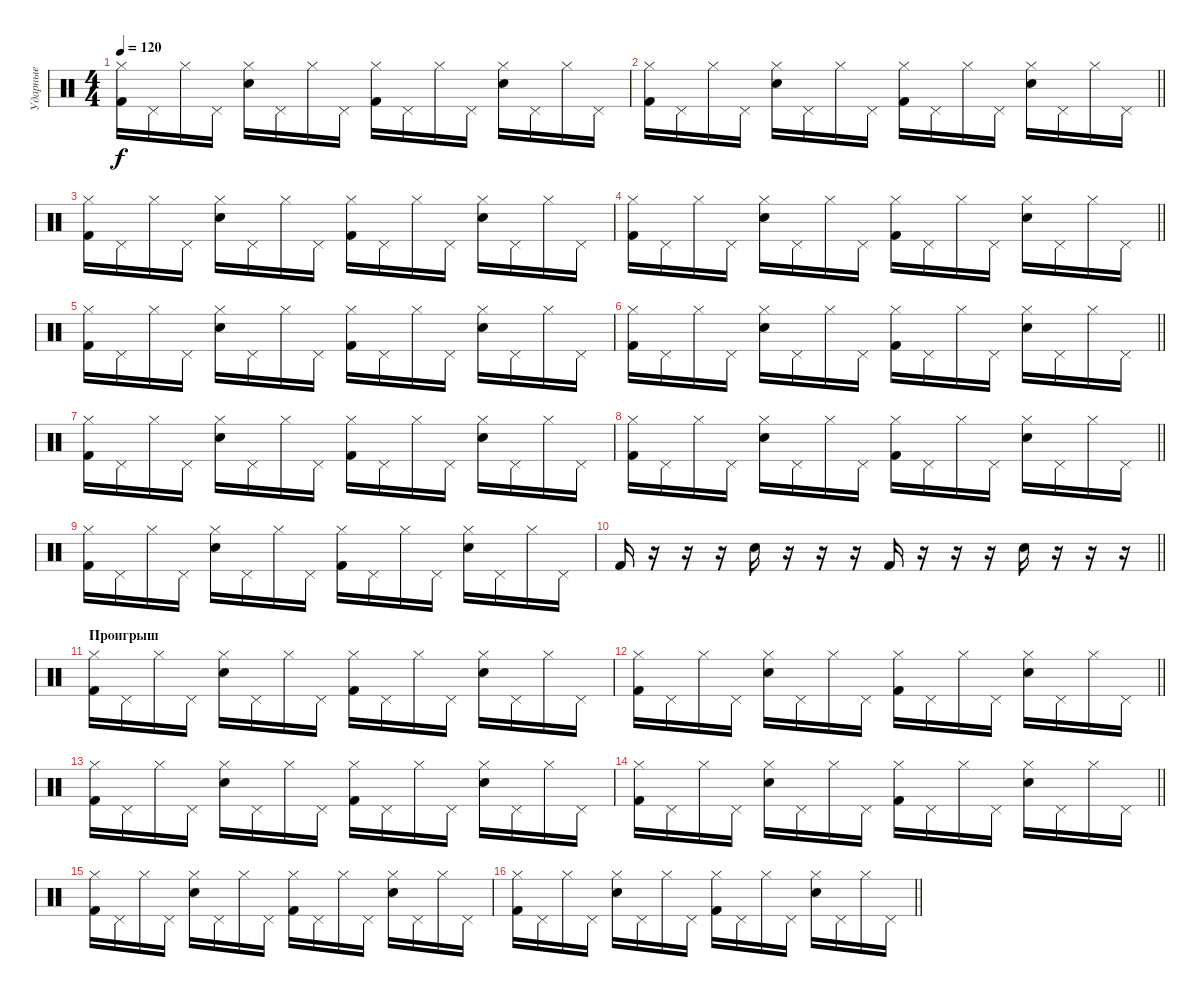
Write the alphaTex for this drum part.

\track ("Ударные" "Ударные") {instrument percussion}
\staff {score}
\articulation defaults
\ts (4 4)
\tempo 120
\clef neutral
\ks c
("Hi-Hat (closed)" "Kick (hit) 2").16{dy f} "Pedal Hi-Hat (hit)".16 "Hi-Hat (closed)".16 "Pedal Hi-Hat (hit)".16 ("Hi-Hat (closed)" "Snare (hit) 2").16 "Pedal Hi-Hat (hit)".16 "Hi-Hat (closed)".16 "Pedal Hi-Hat (hit)".16 ("Hi-Hat (closed)" "Kick (hit) 2").16 "Pedal Hi-Hat (hit)".16 "Hi-Hat (closed)".16 "Pedal Hi-Hat (hit)".16 ("Hi-Hat (closed)" "Snare (hit) 2").16 "Pedal Hi-Hat (hit)".16 "Hi-Hat (closed)".16 "Pedal Hi-Hat (hit)".16 |
\barLineRight lightlight
("Hi-Hat (closed)" "Kick (hit) 2").16 "Pedal Hi-Hat (hit)".16 "Hi-Hat (closed)".16 "Pedal Hi-Hat (hit)".16 ("Hi-Hat (closed)" "Snare (hit) 2").16 "Pedal Hi-Hat (hit)".16 "Hi-Hat (closed)".16 "Pedal Hi-Hat (hit)".16 ("Hi-Hat (closed)" "Kick (hit) 2").16 "Pedal Hi-Hat (hit)".16 "Hi-Hat (closed)".16 "Pedal Hi-Hat (hit)".16 ("Hi-Hat (closed)" "Snare (hit) 2").16 "Pedal Hi-Hat (hit)".16 "Hi-Hat (closed)".16 "Pedal Hi-Hat (hit)".16 |
("Hi-Hat (closed)" "Kick (hit) 2").16 "Pedal Hi-Hat (hit)".16 "Hi-Hat (closed)".16 "Pedal Hi-Hat (hit)".16 ("Hi-Hat (closed)" "Snare (hit) 2").16 "Pedal Hi-Hat (hit)".16 "Hi-Hat (closed)".16 "Pedal Hi-Hat (hit)".16 ("Hi-Hat (closed)" "Kick (hit) 2").16 "Pedal Hi-Hat (hit)".16 "Hi-Hat (closed)".16 "Pedal Hi-Hat (hit)".16 ("Hi-Hat (closed)" "Snare (hit) 2").16 "Pedal Hi-Hat (hit)".16 "Hi-Hat (closed)".16 "Pedal Hi-Hat (hit)".16 |
\barLineRight lightlight
("Hi-Hat (closed)" "Kick (hit) 2").16 "Pedal Hi-Hat (hit)".16 "Hi-Hat (closed)".16 "Pedal Hi-Hat (hit)".16 ("Hi-Hat (closed)" "Snare (hit) 2").16 "Pedal Hi-Hat (hit)".16 "Hi-Hat (closed)".16 "Pedal Hi-Hat (hit)".16 ("Hi-Hat (closed)" "Kick (hit) 2").16 "Pedal Hi-Hat (hit)".16 "Hi-Hat (closed)".16 "Pedal Hi-Hat (hit)".16 ("Hi-Hat (closed)" "Snare (hit) 2").16 "Pedal Hi-Hat (hit)".16 "Hi-Hat (closed)".16 "Pedal Hi-Hat (hit)".16 |
("Hi-Hat (closed)" "Kick (hit) 2").16 "Pedal Hi-Hat (hit)".16 "Hi-Hat (closed)".16 "Pedal Hi-Hat (hit)".16 ("Hi-Hat (closed)" "Snare (hit) 2").16 "Pedal Hi-Hat (hit)".16 "Hi-Hat (closed)".16 "Pedal Hi-Hat (hit)".16 ("Hi-Hat (closed)" "Kick (hit) 2").16 "Pedal Hi-Hat (hit)".16 "Hi-Hat (closed)".16 "Pedal Hi-Hat (hit)".16 ("Hi-Hat (closed)" "Snare (hit) 2").16 "Pedal Hi-Hat (hit)".16 "Hi-Hat (closed)".16 "Pedal Hi-Hat (hit)".16 |
\barLineRight lightlight
("Hi-Hat (closed)" "Kick (hit) 2").16 "Pedal Hi-Hat (hit)".16 "Hi-Hat (closed)".16 "Pedal Hi-Hat (hit)".16 ("Hi-Hat (closed)" "Snare (hit) 2").16 "Pedal Hi-Hat (hit)".16 "Hi-Hat (closed)".16 "Pedal Hi-Hat (hit)".16 ("Hi-Hat (closed)" "Kick (hit) 2").16 "Pedal Hi-Hat (hit)".16 "Hi-Hat (closed)".16 "Pedal Hi-Hat (hit)".16 ("Hi-Hat (closed)" "Snare (hit) 2").16 "Pedal Hi-Hat (hit)".16 "Hi-Hat (closed)".16 "Pedal Hi-Hat (hit)".16 |
("Hi-Hat (closed)" "Kick (hit) 2").16 "Pedal Hi-Hat (hit)".16 "Hi-Hat (closed)".16 "Pedal Hi-Hat (hit)".16 ("Hi-Hat (closed)" "Snare (hit) 2").16 "Pedal Hi-Hat (hit)".16 "Hi-Hat (closed)".16 "Pedal Hi-Hat (hit)".16 ("Hi-Hat (closed)" "Kick (hit) 2").16 "Pedal Hi-Hat (hit)".16 "Hi-Hat (closed)".16 "Pedal Hi-Hat (hit)".16 ("Hi-Hat (closed)" "Snare (hit) 2").16 "Pedal Hi-Hat (hit)".16 "Hi-Hat (closed)".16 "Pedal Hi-Hat (hit)".16 |
\barLineRight lightlight
("Hi-Hat (closed)" "Kick (hit) 2").16 "Pedal Hi-Hat (hit)".16 "Hi-Hat (closed)".16 "Pedal Hi-Hat (hit)".16 ("Hi-Hat (closed)" "Snare (hit) 2").16 "Pedal Hi-Hat (hit)".16 "Hi-Hat (closed)".16 "Pedal Hi-Hat (hit)".16 ("Hi-Hat (closed)" "Kick (hit) 2").16 "Pedal Hi-Hat (hit)".16 "Hi-Hat (closed)".16 "Pedal Hi-Hat (hit)".16 ("Hi-Hat (closed)" "Snare (hit) 2").16 "Pedal Hi-Hat (hit)".16 "Hi-Hat (closed)".16 "Pedal Hi-Hat (hit)".16 |
("Hi-Hat (closed)" "Kick (hit) 2").16 "Pedal Hi-Hat (hit)".16 "Hi-Hat (closed)".16 "Pedal Hi-Hat (hit)".16 ("Hi-Hat (closed)" "Snare (hit) 2").16 "Pedal Hi-Hat (hit)".16 "Hi-Hat (closed)".16 "Pedal Hi-Hat (hit)".16 ("Hi-Hat (closed)" "Kick (hit) 2").16 "Pedal Hi-Hat (hit)".16 "Hi-Hat (closed)".16 "Pedal Hi-Hat (hit)".16 ("Hi-Hat (closed)" "Snare (hit) 2").16 "Pedal Hi-Hat (hit)".16 "Hi-Hat (closed)".16 "Pedal Hi-Hat (hit)".16 |
\barLineRight lightlight "Kick (hit) 2".16
r.16 r.16 r.16 "Snare (hit) 2".16 r.16 r.16 r.16 "Kick (hit) 2".16 r.16 r.16 r.16 "Snare (hit) 2".16 r.16 r.16 r.16 |
\section ("" "Проигрыш")
("Hi-Hat (closed)" "Kick (hit) 2").16 "Pedal Hi-Hat (hit)".16 "Hi-Hat (closed)".16 "Pedal Hi-Hat (hit)".16 ("Hi-Hat (closed)" "Snare (hit) 2").16 "Pedal Hi-Hat (hit)".16 "Hi-Hat (closed)".16 "Pedal Hi-Hat (hit)".16 ("Hi-Hat (closed)" "Kick (hit) 2").16 "Pedal Hi-Hat (hit)".16 "Hi-Hat (closed)".16 "Pedal Hi-Hat (hit)".16 ("Hi-Hat (closed)" "Snare (hit) 2").16 "Pedal Hi-Hat (hit)".16 "Hi-Hat (closed)".16 "Pedal Hi-Hat (hit)".16 |
\barLineRight lightlight
("Hi-Hat (closed)" "Kick (hit) 2").16 "Pedal Hi-Hat (hit)".16 "Hi-Hat (closed)".16 "Pedal Hi-Hat (hit)".16 ("Hi-Hat (closed)" "Snare (hit) 2").16 "Pedal Hi-Hat (hit)".16 "Hi-Hat (closed)".16 "Pedal Hi-Hat (hit)".16 ("Hi-Hat (closed)" "Kick (hit) 2").16 "Pedal Hi-Hat (hit)".16 "Hi-Hat (closed)".16 "Pedal Hi-Hat (hit)".16 ("Hi-Hat (closed)" "Snare (hit) 2").16 "Pedal Hi-Hat (hit)".16 "Hi-Hat (closed)".16 "Pedal Hi-Hat (hit)".16 |
("Hi-Hat (closed)" "Kick (hit) 2").16 "Pedal Hi-Hat (hit)".16 "Hi-Hat (closed)".16 "Pedal Hi-Hat (hit)".16 ("Hi-Hat (closed)" "Snare (hit) 2").16 "Pedal Hi-Hat (hit)".16 "Hi-Hat (closed)".16 "Pedal Hi-Hat (hit)".16 ("Hi-Hat (closed)" "Kick (hit) 2").16 "Pedal Hi-Hat (hit)".16 "Hi-Hat (closed)".16 "Pedal Hi-Hat (hit)".16 ("Hi-Hat (closed)" "Snare (hit) 2").16 "Pedal Hi-Hat (hit)".16 "Hi-Hat (closed)".16 "Pedal Hi-Hat (hit)".16 |
\barLineRight lightlight
("Hi-Hat (closed)" "Kick (hit) 2").16 "Pedal Hi-Hat (hit)".16 "Hi-Hat (closed)".16 "Pedal Hi-Hat (hit)".16 ("Hi-Hat (closed)" "Snare (hit) 2").16 "Pedal Hi-Hat (hit)".16 "Hi-Hat (closed)".16 "Pedal Hi-Hat (hit)".16 ("Hi-Hat (closed)" "Kick (hit) 2").16 "Pedal Hi-Hat (hit)".16 "Hi-Hat (closed)".16 "Pedal Hi-Hat (hit)".16 ("Hi-Hat (closed)" "Snare (hit) 2").16 "Pedal Hi-Hat (hit)".16 "Hi-Hat (closed)".16 "Pedal Hi-Hat (hit)".16 |
("Hi-Hat (closed)" "Kick (hit) 2").16 "Pedal Hi-Hat (hit)".16 "Hi-Hat (closed)".16 "Pedal Hi-Hat (hit)".16 ("Hi-Hat (closed)" "Snare (hit) 2").16 "Pedal Hi-Hat (hit)".16 "Hi-Hat (closed)".16 "Pedal Hi-Hat (hit)".16 ("Hi-Hat (closed)" "Kick (hit) 2").16 "Pedal Hi-Hat (hit)".16 "Hi-Hat (closed)".16 "Pedal Hi-Hat (hit)".16 ("Hi-Hat (closed)" "Snare (hit) 2").16 "Pedal Hi-Hat (hit)".16 "Hi-Hat (closed)".16 "Pedal Hi-Hat (hit)".16 |
\barLineRight lightlight
("Hi-Hat (closed)" "Kick (hit) 2").16 "Pedal Hi-Hat (hit)".16 "Hi-Hat (closed)".16 "Pedal Hi-Hat (hit)".16 ("Hi-Hat (closed)" "Snare (hit) 2").16 "Pedal Hi-Hat (hit)".16 "Hi-Hat (closed)".16 "Pedal Hi-Hat (hit)".16 ("Hi-Hat (closed)" "Kick (hit) 2").16 "Pedal Hi-Hat (hit)".16 "Hi-Hat (closed)".16 "Pedal Hi-Hat (hit)".16 ("Hi-Hat (closed)" "Snare (hit) 2").16 "Pedal Hi-Hat (hit)".16 "Hi-Hat (closed)".16 "Pedal Hi-Hat (hit)".16
